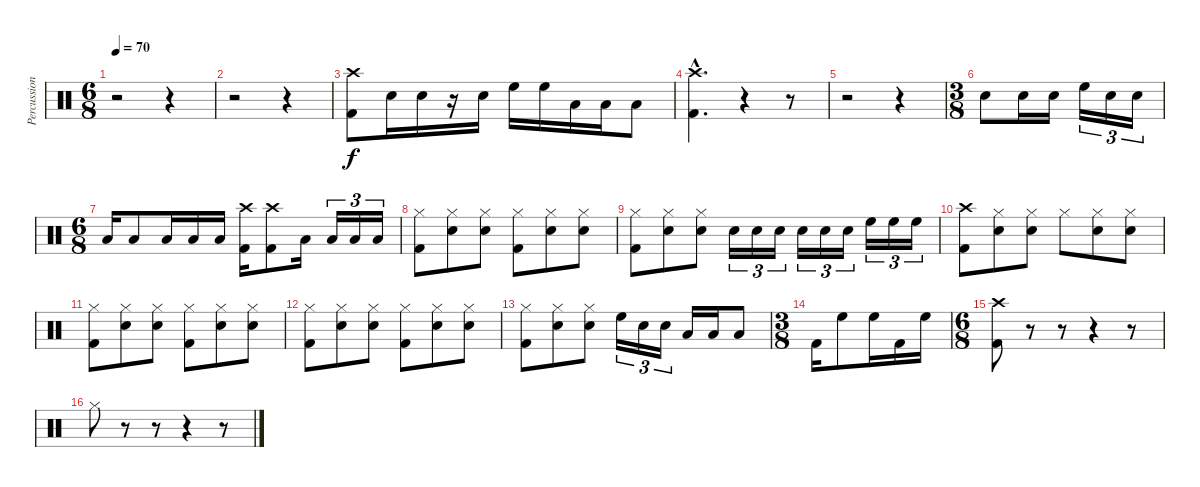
\track ("Percussion" "Percussion") {instrument percussion}
\staff {score}
\articulation defaults
\ts (6 8)
\tempo 70
\clef neutral
\ks c
r.2{dy f} r.4 |
r.2 r.4 |
("Crash high (hit)" "Kick (hit) 2").8 "Snare (hit) 2".16 "Snare (hit) 2".16 r.16 "Snare (hit) 2".16 "High Floor Tom (hit)".16 "High Floor Tom (hit)".16 "Low Tom (hit)".16 "Low Tom (hit)".16 "Low Tom (hit)".8 |
("Crash high (hit)"{hac} "Kick (hit) 2"{hac}).4{d} r.4 r.8 |
r.2 r.4 |
\ts (3 8)
"Snare (hit) 2".8 "Snare (hit) 2".16 "Snare (hit) 2".16 "High Floor Tom (hit)".16{tu (3 2)} "Snare (hit) 2".16{tu (3 2)} "Snare (hit) 2".16{tu (3 2)} |
\ts (6 8)
"Low Tom (hit)".16 "Low Tom (hit)".8 "Low Tom (hit)".16 "Low Tom (hit)".16 "Low Tom (hit)".16 ("Crash high (hit)" "Kick (hit) 2").16 ("Crash high (hit)" "Kick (hit) 2").8 "Low Tom (hit)".16 "Low Tom (hit)".16{tu (3 2)} "Low Tom (hit)".16{tu (3 2)} "Low Tom (hit)".16{tu (3 2)} |
("Hi-Hat (closed)" "Kick (hit) 2").8 ("Hi-Hat (closed)" "Snare (hit) 2").8 ("Hi-Hat (closed)" "Snare (hit) 2").8 ("Hi-Hat (closed)" "Kick (hit) 2").8 ("Hi-Hat (closed)" "Snare (hit) 2").8 ("Hi-Hat (closed)" "Snare (hit) 2").8 |
("Hi-Hat (closed)" "Kick (hit) 2").8 ("Hi-Hat (closed)" "Snare (hit) 2").8 ("Hi-Hat (closed)" "Snare (hit) 2").8 "Snare (hit) 2".16{tu (3 2)} "Snare (hit) 2".16{tu (3 2)} "Snare (hit) 2".16{tu (3 2)} "Snare (hit) 2".16{tu (3 2)} "Snare (hit) 2".16{tu (3 2)} "Snare (hit) 2".16{tu (3 2)} "High Floor Tom (hit)".16{tu (3 2)} "High Floor Tom (hit)".16{tu (3 2)} "High Floor Tom (hit)".16{tu (3 2)} |
("Crash high (hit)" "Kick (hit) 2").8 ("Hi-Hat (closed)" "Snare (hit) 2").8 ("Hi-Hat (closed)" "Snare (hit) 2").8 "Hi-Hat (closed)".8 ("Hi-Hat (closed)" "Snare (hit) 2").8 ("Hi-Hat (closed)" "Snare (hit) 2").8 |
("Hi-Hat (closed)" "Kick (hit) 2").8 ("Hi-Hat (closed)" "Snare (hit) 2").8 ("Hi-Hat (closed)" "Snare (hit) 2").8 ("Hi-Hat (closed)" "Kick (hit) 2").8 ("Hi-Hat (closed)" "Snare (hit) 2").8 ("Hi-Hat (closed)" "Snare (hit) 2").8 |
("Hi-Hat (closed)" "Kick (hit) 2").8 ("Hi-Hat (closed)" "Snare (hit) 2").8 ("Hi-Hat (closed)" "Snare (hit) 2").8 ("Hi-Hat (closed)" "Kick (hit) 2").8 ("Hi-Hat (closed)" "Snare (hit) 2").8 ("Hi-Hat (closed)" "Snare (hit) 2").8 |
("Hi-Hat (closed)" "Kick (hit) 2").8 ("Hi-Hat (closed)" "Snare (hit) 2").8 ("Hi-Hat (closed)" "Snare (hit) 2").8 "High Floor Tom (hit)".16{tu (3 2)} "Snare (hit) 2".16{tu (3 2)} "Snare (hit) 2".16{tu (3 2)} "Low Tom (hit)".16 "Low Tom (hit)".16 "Low Tom (hit)".8 |
\ts (3 8)
"Kick (hit) 2".16 "High Floor Tom (hit)".8 "High Floor Tom (hit)".16 "Kick (hit) 2".16 "High Floor Tom (hit)".16 |
\ts (6 8)
("Crash high (hit)" "Kick (hit) 2").8 r.8 r.8 r.4 r.8 |
"Hi-Hat (closed)".8 r.8 r.8 r.4 r.8
